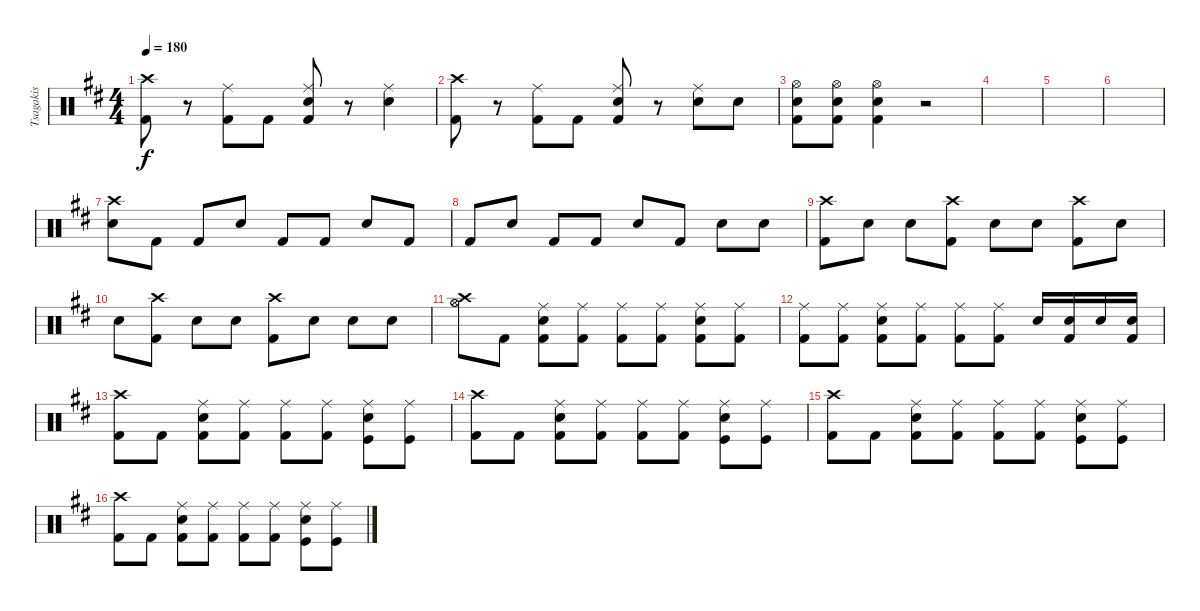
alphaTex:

\track ("Tsagakis" "Tsagakis") {instrument percussion}
\staff {score}
\articulation defaults
\ts (4 4)
\tempo 180
\clef neutral
\ks d
("Crash high (hit)" "Kick (hit) 2").8{dy f} r.8 ("Ride (middle)" "Kick (hit) 2").8 "Kick (hit) 2".8 ("Ride (middle)" "Electric Snare (hit)" "Kick (hit) 2").8 r.8 ("Ride (middle)" "Electric Snare (hit)").4 |
("Crash high (hit)" "Kick (hit) 2").8 r.8 ("Ride (middle)" "Kick (hit) 2").8 "Kick (hit) 2".8 ("Ride (middle)" "Electric Snare (hit)" "Kick (hit) 2").8 r.8 ("Ride (middle)" "Electric Snare (hit)").8 "Electric Snare (hit)".8 |
("Hi-Hat (open)" "Electric Snare (hit)" "Kick (hit) 2").8 ("Hi-Hat (open)" "Electric Snare (hit)" "Kick (hit) 2").8 ("Hi-Hat (open)" "Electric Snare (hit)" "Kick (hit) 2").4 r.2 |
|
|
|
("Crash high (hit)" "Electric Snare (hit)").8 "Kick (hit) 2".8 "Kick (hit) 2".8 "Electric Snare (hit)".8 "Kick (hit) 2".8 "Kick (hit) 2".8 "Electric Snare (hit)".8 "Kick (hit) 2".8 |
"Kick (hit) 2".8 "Electric Snare (hit)".8 "Kick (hit) 2".8 "Kick (hit) 2".8 "Electric Snare (hit)".8 "Kick (hit) 2".8 "Electric Snare (hit)".8 "Electric Snare (hit)".8 |
("Crash high (hit)" "Kick (hit) 2").8 "Electric Snare (hit)".8 "Electric Snare (hit)".8 ("Crash high (hit)" "Kick (hit) 2").8 "Electric Snare (hit)".8 "Electric Snare (hit)".8 ("Crash high (hit)" "Kick (hit) 2").8 "Electric Snare (hit)".8 |
"Electric Snare (hit)".8 ("Crash high (hit)" "Kick (hit) 2").8 "Electric Snare (hit)".8 "Electric Snare (hit)".8 ("Crash high (hit)" "Kick (hit) 2").8 "Electric Snare (hit)".8 "Electric Snare (hit)".8 "Electric Snare (hit)".8 |
("Crash high (hit)" "Hi-Hat (open)" "Hi-Hat (open)").8 "Kick (hit) 2".8 ("Ride (middle)" "Electric Snare (hit)" "Kick (hit) 2").8 ("Ride (middle)" "Kick (hit) 2").8 ("Ride (middle)" "Kick (hit) 2").8 ("Ride (middle)" "Kick (hit) 2").8 ("Ride (middle)" "Electric Snare (hit)" "Kick (hit) 2").8 ("Ride (middle)" "Kick (hit) 2").8 |
("Ride (middle)" "Kick (hit) 2").8 ("Ride (middle)" "Kick (hit) 2").8 ("Ride (middle)" "Electric Snare (hit)" "Kick (hit) 2").8 ("Ride (middle)" "Kick (hit) 2").8 ("Ride (middle)" "Kick (hit) 2").8 ("Ride (middle)" "Kick (hit) 2").8 "Electric Snare (hit)".16 ("Electric Snare (hit)" "Kick (hit) 2").16 "Electric Snare (hit)".16 ("Electric Snare (hit)" "Kick (hit) 2").16 |
("Crash high (hit)" "Kick (hit) 2").8 "Kick (hit) 2".8 ("Ride (middle)" "Electric Snare (hit)" "Kick (hit) 2").8 ("Ride (middle)" "Kick (hit) 2").8 ("Ride (middle)" "Kick (hit) 2").8 ("Ride (middle)" "Kick (hit) 2").8 ("Ride (middle)" "Electric Snare (hit)" "Kick (hit)").8 ("Ride (middle)" "Kick (hit)").8 |
("Crash high (hit)" "Kick (hit) 2").8 "Kick (hit) 2".8 ("Ride (middle)" "Electric Snare (hit)" "Kick (hit) 2").8 ("Ride (middle)" "Kick (hit) 2").8 ("Ride (middle)" "Kick (hit) 2").8 ("Ride (middle)" "Kick (hit) 2").8 ("Ride (middle)" "Electric Snare (hit)" "Kick (hit)").8 ("Ride (middle)" "Kick (hit)").8 |
("Crash high (hit)" "Kick (hit) 2").8 "Kick (hit) 2".8 ("Ride (middle)" "Electric Snare (hit)" "Kick (hit) 2").8 ("Ride (middle)" "Kick (hit) 2").8 ("Ride (middle)" "Kick (hit) 2").8 ("Ride (middle)" "Kick (hit) 2").8 ("Ride (middle)" "Electric Snare (hit)" "Kick (hit)").8 ("Ride (middle)" "Kick (hit)").8 |
("Crash high (hit)" "Kick (hit) 2").8 "Kick (hit) 2".8 ("Ride (middle)" "Electric Snare (hit)" "Kick (hit) 2").8 ("Ride (middle)" "Kick (hit) 2").8 ("Ride (middle)" "Kick (hit) 2").8 ("Ride (middle)" "Kick (hit) 2").8 ("Ride (middle)" "Electric Snare (hit)" "Kick (hit)").8 ("Ride (middle)" "Kick (hit)").8
